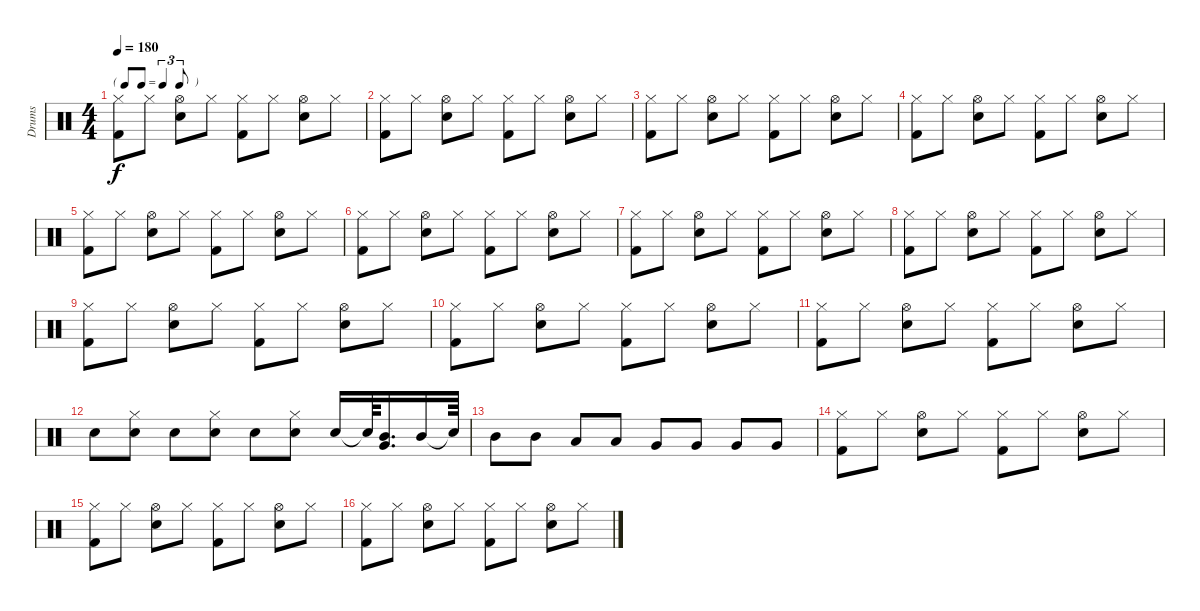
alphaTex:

\track ("Drums" "Drums") {instrument percussion}
\staff {score}
\articulation defaults
\ts (4 4)
\tf triplet8th
\tempo 180
\clef neutral
\ks c
("Hi-Hat (closed)" "Kick (hit) 2").8{dy f} "Hi-Hat (closed)".8 ("Hi-Hat (open)" "Snare (hit) 2").8 "Hi-Hat (closed)".8 ("Hi-Hat (closed)" "Kick (hit) 2").8 "Hi-Hat (closed)".8 ("Hi-Hat (open)" "Snare (hit) 2").8 "Hi-Hat (closed)".8 |
("Hi-Hat (closed)" "Kick (hit) 2").8 "Hi-Hat (closed)".8 ("Hi-Hat (open)" "Snare (hit) 2").8 "Hi-Hat (closed)".8 ("Hi-Hat (closed)" "Kick (hit) 2").8 "Hi-Hat (closed)".8 ("Hi-Hat (open)" "Snare (hit) 2").8 "Hi-Hat (closed)".8 |
("Hi-Hat (closed)" "Kick (hit) 2").8 "Hi-Hat (closed)".8 ("Hi-Hat (open)" "Snare (hit) 2").8 "Hi-Hat (closed)".8 ("Hi-Hat (closed)" "Kick (hit) 2").8 "Hi-Hat (closed)".8 ("Hi-Hat (open)" "Snare (hit) 2").8 "Hi-Hat (closed)".8 |
("Hi-Hat (closed)" "Kick (hit) 2").8 "Hi-Hat (closed)".8 ("Hi-Hat (open)" "Snare (hit) 2").8 "Hi-Hat (closed)".8 ("Hi-Hat (closed)" "Kick (hit) 2").8 "Hi-Hat (closed)".8 ("Hi-Hat (open)" "Snare (hit) 2").8 "Hi-Hat (closed)".8 |
("Hi-Hat (closed)" "Kick (hit) 2").8 "Hi-Hat (closed)".8 ("Hi-Hat (open)" "Snare (hit) 2").8 "Hi-Hat (closed)".8 ("Hi-Hat (closed)" "Kick (hit) 2").8 "Hi-Hat (closed)".8 ("Hi-Hat (open)" "Snare (hit) 2").8 "Hi-Hat (closed)".8 |
("Hi-Hat (closed)" "Kick (hit) 2").8 "Hi-Hat (closed)".8 ("Hi-Hat (open)" "Snare (hit) 2").8 "Hi-Hat (closed)".8 ("Hi-Hat (closed)" "Kick (hit) 2").8 "Hi-Hat (closed)".8 ("Hi-Hat (open)" "Snare (hit) 2").8 "Hi-Hat (closed)".8 |
("Hi-Hat (closed)" "Kick (hit) 2").8 "Hi-Hat (closed)".8 ("Hi-Hat (open)" "Snare (hit) 2").8 "Hi-Hat (closed)".8 ("Hi-Hat (closed)" "Kick (hit) 2").8 "Hi-Hat (closed)".8 ("Hi-Hat (open)" "Snare (hit) 2").8 "Hi-Hat (closed)".8 |
("Hi-Hat (closed)" "Kick (hit) 2").8 "Hi-Hat (closed)".8 ("Hi-Hat (open)" "Snare (hit) 2").8 "Hi-Hat (closed)".8 ("Hi-Hat (closed)" "Kick (hit) 2").8 "Hi-Hat (closed)".8 ("Hi-Hat (open)" "Snare (hit) 2").8 "Hi-Hat (closed)".8 |
("Hi-Hat (closed)" "Kick (hit) 2").8 "Hi-Hat (closed)".8 ("Hi-Hat (open)" "Snare (hit) 2").8 "Hi-Hat (closed)".8 ("Hi-Hat (closed)" "Kick (hit) 2").8 "Hi-Hat (closed)".8 ("Hi-Hat (open)" "Snare (hit) 2").8 "Hi-Hat (closed)".8 |
("Hi-Hat (closed)" "Kick (hit) 2").8 "Hi-Hat (closed)".8 ("Hi-Hat (open)" "Snare (hit) 2").8 "Hi-Hat (closed)".8 ("Hi-Hat (closed)" "Kick (hit) 2").8 "Hi-Hat (closed)".8 ("Hi-Hat (open)" "Snare (hit) 2").8 "Hi-Hat (closed)".8 |
("Hi-Hat (closed)" "Kick (hit) 2").8 "Hi-Hat (closed)".8 ("Hi-Hat (open)" "Snare (hit) 2").8 "Hi-Hat (closed)".8 ("Hi-Hat (closed)" "Kick (hit) 2").8 "Hi-Hat (closed)".8 ("Hi-Hat (open)" "Snare (hit) 2").8 "Hi-Hat (closed)".8 |
"Snare (hit) 2".8 ("Hi-Hat (closed)" "Snare (hit) 2").8 "Snare (hit) 2".8 ("Hi-Hat (closed)" "Snare (hit) 2").8 "Snare (hit) 2".8 ("Hi-Hat (closed)" "Snare (hit) 2").8 "Snare (hit) 2".16 "Snare (hit)"{t}.64 ("Mid Tom (hit)" "Very Low Tom (hit)").16{d} "Mid Tom (hit)".16 "Snare (hit)"{t}.64 |
"Mid Tom (hit)".8 "Mid Tom (hit)".8 "Low Tom (hit)".8 "Low Tom (hit)".8 "Very Low Tom (hit)".8 "Very Low Tom (hit)".8 "Very Low Tom (hit)".8 "Very Low Tom (hit)".8 |
("Hi-Hat (closed)" "Kick (hit) 2").8 "Hi-Hat (closed)".8 ("Hi-Hat (open)" "Snare (hit) 2").8 "Hi-Hat (closed)".8 ("Hi-Hat (closed)" "Kick (hit) 2").8 "Hi-Hat (closed)".8 ("Hi-Hat (open)" "Snare (hit) 2").8 "Hi-Hat (closed)".8 |
("Hi-Hat (closed)" "Kick (hit) 2").8 "Hi-Hat (closed)".8 ("Hi-Hat (open)" "Snare (hit) 2").8 "Hi-Hat (closed)".8 ("Hi-Hat (closed)" "Kick (hit) 2").8 "Hi-Hat (closed)".8 ("Hi-Hat (open)" "Snare (hit) 2").8 "Hi-Hat (closed)".8 |
("Hi-Hat (closed)" "Kick (hit) 2").8 "Hi-Hat (closed)".8 ("Hi-Hat (open)" "Snare (hit) 2").8 "Hi-Hat (closed)".8 ("Hi-Hat (closed)" "Kick (hit) 2").8 "Hi-Hat (closed)".8 ("Hi-Hat (open)" "Snare (hit) 2").8 "Hi-Hat (closed)".8
